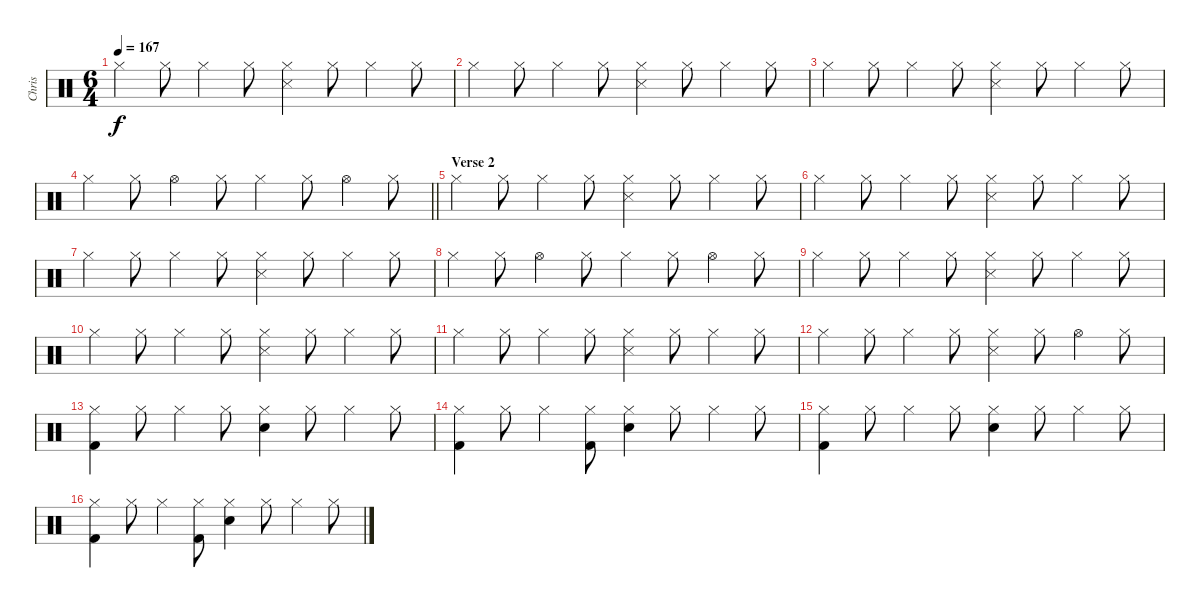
\track ("Chris" "Chris") {instrument percussion}
\staff {score}
\articulation defaults
\ts (6 4)
\tempo 167
\clef neutral
\ks c "Hi-Hat (closed)".4{dy f} "Hi-Hat (closed)".8 "Hi-Hat (closed)".4 "Hi-Hat (closed)".8
("Hi-Hat (closed)" "Snare (side stick) 3").4 "Hi-Hat (closed)".8 "Hi-Hat (closed)".4 "Hi-Hat (closed)".8 |
"Hi-Hat (closed)".4 "Hi-Hat (closed)".8 "Hi-Hat (closed)".4 "Hi-Hat (closed)".8 ("Hi-Hat (closed)" "Snare (side stick) 3").4 "Hi-Hat (closed)".8 "Hi-Hat (closed)".4 "Hi-Hat (closed)".8 |
"Hi-Hat (closed)".4 "Hi-Hat (closed)".8 "Hi-Hat (closed)".4 "Hi-Hat (closed)".8 ("Hi-Hat (closed)" "Snare (side stick) 3").4 "Hi-Hat (closed)".8 "Hi-Hat (closed)".4 "Hi-Hat (closed)".8 |
\barLineRight lightlight "Hi-Hat (closed)".4 "Hi-Hat (closed)".8 "Hi-Hat (open)".4 "Hi-Hat (closed)".8 "Hi-Hat (closed)".4 "Hi-Hat (closed)".8 "Hi-Hat (open)".4 "Hi-Hat (closed)".8
|
\section ("" "Verse 2")
"Hi-Hat (closed)".4 "Hi-Hat (closed)".8 "Hi-Hat (closed)".4 "Hi-Hat (closed)".8 ("Hi-Hat (closed)" "Snare (side stick) 3").4 "Hi-Hat (closed)".8 "Hi-Hat (closed)".4 "Hi-Hat (closed)".8 |
"Hi-Hat (closed)".4 "Hi-Hat (closed)".8 "Hi-Hat (closed)".4 "Hi-Hat (closed)".8 ("Hi-Hat (closed)" "Snare (side stick) 3").4 "Hi-Hat (closed)".8 "Hi-Hat (closed)".4 "Hi-Hat (closed)".8 |
"Hi-Hat (closed)".4 "Hi-Hat (closed)".8 "Hi-Hat (closed)".4 "Hi-Hat (closed)".8 ("Hi-Hat (closed)" "Snare (side stick) 3").4 "Hi-Hat (closed)".8 "Hi-Hat (closed)".4 "Hi-Hat (closed)".8 |
"Hi-Hat (closed)".4 "Hi-Hat (closed)".8 "Hi-Hat (open)".4 "Hi-Hat (closed)".8 "Hi-Hat (closed)".4 "Hi-Hat (closed)".8 "Hi-Hat (open)".4 "Hi-Hat (closed)".8 |
"Hi-Hat (closed)".4 "Hi-Hat (closed)".8 "Hi-Hat (closed)".4 "Hi-Hat (closed)".8 ("Hi-Hat (closed)" "Snare (side stick) 3").4 "Hi-Hat (closed)".8 "Hi-Hat (closed)".4 "Hi-Hat (closed)".8 |
"Hi-Hat (closed)".4 "Hi-Hat (closed)".8 "Hi-Hat (closed)".4 "Hi-Hat (closed)".8 ("Hi-Hat (closed)" "Snare (side stick) 3").4 "Hi-Hat (closed)".8 "Hi-Hat (closed)".4 "Hi-Hat (closed)".8 |
"Hi-Hat (closed)".4 "Hi-Hat (closed)".8 "Hi-Hat (closed)".4 "Hi-Hat (closed)".8 ("Hi-Hat (closed)" "Snare (side stick) 3").4 "Hi-Hat (closed)".8 "Hi-Hat (closed)".4 "Hi-Hat (closed)".8 |
"Hi-Hat (closed)".4 "Hi-Hat (closed)".8 "Hi-Hat (closed)".4 "Hi-Hat (closed)".8 ("Hi-Hat (closed)" "Snare (side stick) 3").4 "Hi-Hat (closed)".8 "Hi-Hat (open)".4 "Hi-Hat (closed)".8 |
("Hi-Hat (closed)" "Kick (hit) 2").4 "Hi-Hat (closed)".8 "Hi-Hat (closed)".4 "Hi-Hat (closed)".8 ("Hi-Hat (closed)" "Electric Snare (hit)").4 "Hi-Hat (closed)".8 "Hi-Hat (closed)".4 "Hi-Hat (closed)".8 |
("Hi-Hat (closed)" "Kick (hit) 2").4 "Hi-Hat (closed)".8 "Hi-Hat (closed)".4 ("Hi-Hat (closed)" "Kick (hit) 2").8 ("Hi-Hat (closed)" "Electric Snare (hit)").4 "Hi-Hat (closed)".8 "Hi-Hat (closed)".4 "Hi-Hat (closed)".8 |
("Hi-Hat (closed)" "Kick (hit) 2").4 "Hi-Hat (closed)".8 "Hi-Hat (closed)".4 "Hi-Hat (closed)".8 ("Hi-Hat (closed)" "Electric Snare (hit)").4 "Hi-Hat (closed)".8 "Hi-Hat (closed)".4 "Hi-Hat (closed)".8 |
("Hi-Hat (closed)" "Kick (hit) 2").4 "Hi-Hat (closed)".8 "Hi-Hat (closed)".4 ("Hi-Hat (closed)" "Kick (hit) 2").8 ("Hi-Hat (closed)" "Electric Snare (hit)").4 "Hi-Hat (closed)".8 "Hi-Hat (closed)".4 "Hi-Hat (closed)".8
